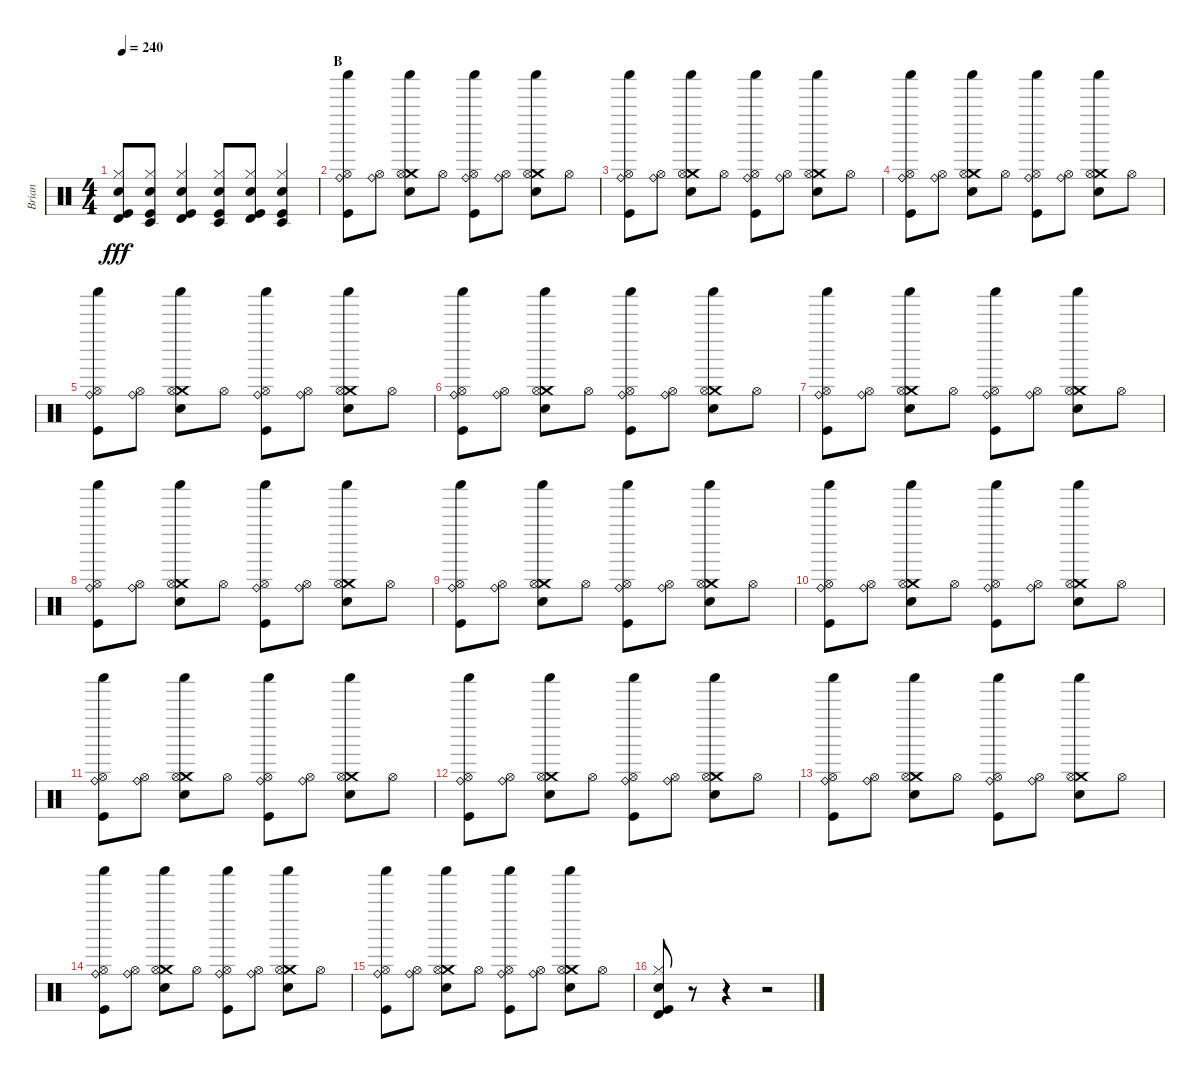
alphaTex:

\track ("Brian" "Brian") {instrument percussion}
\staff {score}
\articulation defaults
\ts (4 4)
\tempo 240
\clef neutral
\ks c
("Timbale high (hit)" "Hi-Hat (closed)" "Snare (hit) 2" "Kick (hit)").8{dy fff} ("Timbale low (hit)" "Hi-Hat (closed)" "Snare (hit) 2" "Kick (hit)").8 ("Timbale high (hit)" "Hi-Hat (closed)" "Snare (hit) 2" "Kick (hit)").4 ("Timbale low (hit)" "Hi-Hat (closed)" "Snare (hit) 2" "Kick (hit)").8 ("Timbale high (hit)" "Hi-Hat (closed)" "Snare (hit) 2" "Kick (hit)").8 ("Timbale low (hit)" "Hi-Hat (closed)" "Snare (hit) 2" "Kick (hit)").4 |
\section ("" "B")
("Shaker (hit)" "Ride (bell)" "Hi-Hat (open)" "Kick (hit)").8 ("Ride (bell)" "Hi-Hat (open)").8 ("Shaker (hit)" "Crash medium (hit)" "Hi-Hat (open)" "Snare (hit) 2").8 "Hi-Hat (open)".8 ("Shaker (hit)" "Ride (bell)" "Hi-Hat (open)" "Kick (hit)").8 ("Ride (bell)" "Hi-Hat (open)").8 ("Shaker (hit)" "Crash medium (hit)" "Hi-Hat (open)" "Snare (hit) 2").8 "Hi-Hat (open)".8 |
("Shaker (hit)" "Ride (bell)" "Hi-Hat (open)" "Kick (hit)").8 ("Ride (bell)" "Hi-Hat (open)").8 ("Shaker (hit)" "Crash medium (hit)" "Hi-Hat (open)" "Snare (hit) 2").8 "Hi-Hat (open)".8 ("Shaker (hit)" "Ride (bell)" "Hi-Hat (open)" "Kick (hit)").8 ("Ride (bell)" "Hi-Hat (open)").8 ("Shaker (hit)" "Crash medium (hit)" "Hi-Hat (open)" "Snare (hit) 2").8 "Hi-Hat (open)".8 |
("Shaker (hit)" "Ride (bell)" "Hi-Hat (open)" "Kick (hit)").8 ("Ride (bell)" "Hi-Hat (open)").8 ("Shaker (hit)" "Crash medium (hit)" "Hi-Hat (open)" "Snare (hit) 2").8 "Hi-Hat (open)".8 ("Shaker (hit)" "Ride (bell)" "Hi-Hat (open)" "Kick (hit)").8 ("Ride (bell)" "Hi-Hat (open)").8 ("Shaker (hit)" "Crash medium (hit)" "Hi-Hat (open)" "Snare (hit) 2").8 "Hi-Hat (open)".8 |
("Shaker (hit)" "Ride (bell)" "Hi-Hat (open)" "Kick (hit)").8 ("Ride (bell)" "Hi-Hat (open)").8 ("Shaker (hit)" "Crash medium (hit)" "Hi-Hat (open)" "Snare (hit) 2").8 "Hi-Hat (open)".8 ("Shaker (hit)" "Ride (bell)" "Hi-Hat (open)" "Kick (hit)").8 ("Ride (bell)" "Hi-Hat (open)").8 ("Shaker (hit)" "Crash medium (hit)" "Hi-Hat (open)" "Snare (hit) 2").8 "Hi-Hat (open)".8 |
("Shaker (hit)" "Ride (bell)" "Hi-Hat (open)" "Kick (hit)").8 ("Ride (bell)" "Hi-Hat (open)").8 ("Shaker (hit)" "Crash medium (hit)" "Hi-Hat (open)" "Snare (hit) 2").8 "Hi-Hat (open)".8 ("Shaker (hit)" "Ride (bell)" "Hi-Hat (open)" "Kick (hit)").8 ("Ride (bell)" "Hi-Hat (open)").8 ("Shaker (hit)" "Crash medium (hit)" "Hi-Hat (open)" "Snare (hit) 2").8 "Hi-Hat (open)".8 |
("Shaker (hit)" "Ride (bell)" "Hi-Hat (open)" "Kick (hit)").8 ("Ride (bell)" "Hi-Hat (open)").8 ("Shaker (hit)" "Crash medium (hit)" "Hi-Hat (open)" "Snare (hit) 2").8 "Hi-Hat (open)".8 ("Shaker (hit)" "Ride (bell)" "Hi-Hat (open)" "Kick (hit)").8 ("Ride (bell)" "Hi-Hat (open)").8 ("Shaker (hit)" "Crash medium (hit)" "Hi-Hat (open)" "Snare (hit) 2").8 "Hi-Hat (open)".8 |
("Shaker (hit)" "Ride (bell)" "Hi-Hat (open)" "Kick (hit)").8 ("Ride (bell)" "Hi-Hat (open)").8 ("Shaker (hit)" "Crash medium (hit)" "Hi-Hat (open)" "Snare (hit) 2").8 "Hi-Hat (open)".8 ("Shaker (hit)" "Ride (bell)" "Hi-Hat (open)" "Kick (hit)").8 ("Ride (bell)" "Hi-Hat (open)").8 ("Shaker (hit)" "Crash medium (hit)" "Hi-Hat (open)" "Snare (hit) 2").8 "Hi-Hat (open)".8 |
("Shaker (hit)" "Ride (bell)" "Hi-Hat (open)" "Kick (hit)").8 ("Ride (bell)" "Hi-Hat (open)").8 ("Shaker (hit)" "Crash medium (hit)" "Hi-Hat (open)" "Snare (hit) 2").8 "Hi-Hat (open)".8 ("Shaker (hit)" "Ride (bell)" "Hi-Hat (open)" "Kick (hit)").8 ("Ride (bell)" "Hi-Hat (open)").8 ("Shaker (hit)" "Crash medium (hit)" "Hi-Hat (open)" "Snare (hit) 2").8 "Hi-Hat (open)".8 |
("Shaker (hit)" "Ride (bell)" "Hi-Hat (open)" "Kick (hit)").8 ("Ride (bell)" "Hi-Hat (open)").8 ("Shaker (hit)" "Crash medium (hit)" "Hi-Hat (open)" "Snare (hit) 2").8 "Hi-Hat (open)".8 ("Shaker (hit)" "Ride (bell)" "Hi-Hat (open)" "Kick (hit)").8 ("Ride (bell)" "Hi-Hat (open)").8 ("Shaker (hit)" "Crash medium (hit)" "Hi-Hat (open)" "Snare (hit) 2").8 "Hi-Hat (open)".8 |
("Shaker (hit)" "Ride (bell)" "Hi-Hat (open)" "Kick (hit)").8 ("Ride (bell)" "Hi-Hat (open)").8 ("Shaker (hit)" "Crash medium (hit)" "Hi-Hat (open)" "Snare (hit) 2").8 "Hi-Hat (open)".8 ("Shaker (hit)" "Ride (bell)" "Hi-Hat (open)" "Kick (hit)").8 ("Ride (bell)" "Hi-Hat (open)").8 ("Shaker (hit)" "Crash medium (hit)" "Hi-Hat (open)" "Snare (hit) 2").8 "Hi-Hat (open)".8 |
("Shaker (hit)" "Ride (bell)" "Hi-Hat (open)" "Kick (hit)").8 ("Ride (bell)" "Hi-Hat (open)").8 ("Shaker (hit)" "Crash medium (hit)" "Hi-Hat (open)" "Snare (hit) 2").8 "Hi-Hat (open)".8 ("Shaker (hit)" "Ride (bell)" "Hi-Hat (open)" "Kick (hit)").8 ("Ride (bell)" "Hi-Hat (open)").8 ("Shaker (hit)" "Crash medium (hit)" "Hi-Hat (open)" "Snare (hit) 2").8 "Hi-Hat (open)".8 |
("Shaker (hit)" "Ride (bell)" "Hi-Hat (open)" "Kick (hit)").8 ("Ride (bell)" "Hi-Hat (open)").8 ("Shaker (hit)" "Crash medium (hit)" "Hi-Hat (open)" "Snare (hit) 2").8 "Hi-Hat (open)".8 ("Shaker (hit)" "Ride (bell)" "Hi-Hat (open)" "Kick (hit)").8 ("Ride (bell)" "Hi-Hat (open)").8 ("Shaker (hit)" "Crash medium (hit)" "Hi-Hat (open)" "Snare (hit) 2").8 "Hi-Hat (open)".8 |
("Shaker (hit)" "Ride (bell)" "Hi-Hat (open)" "Kick (hit)").8 ("Ride (bell)" "Hi-Hat (open)").8 ("Shaker (hit)" "Crash medium (hit)" "Hi-Hat (open)" "Snare (hit) 2").8 "Hi-Hat (open)".8 ("Shaker (hit)" "Ride (bell)" "Hi-Hat (open)" "Kick (hit)").8 ("Ride (bell)" "Hi-Hat (open)").8 ("Shaker (hit)" "Crash medium (hit)" "Hi-Hat (open)" "Snare (hit) 2").8 "Hi-Hat (open)".8 |
("Shaker (hit)" "Ride (bell)" "Hi-Hat (open)" "Kick (hit)").8 ("Ride (bell)" "Hi-Hat (open)").8 ("Shaker (hit)" "Crash medium (hit)" "Hi-Hat (open)" "Snare (hit) 2").8 "Hi-Hat (open)".8 ("Shaker (hit)" "Ride (bell)" "Hi-Hat (open)" "Kick (hit)").8 ("Ride (bell)" "Hi-Hat (open)").8 ("Shaker (hit)" "Crash medium (hit)" "Hi-Hat (open)" "Snare (hit) 2").8 "Hi-Hat (open)".8 |
("Timbale high (hit)" "Hi-Hat (closed)" "Snare (hit) 2" "Kick (hit)").8 r.8 r.4 r.2
